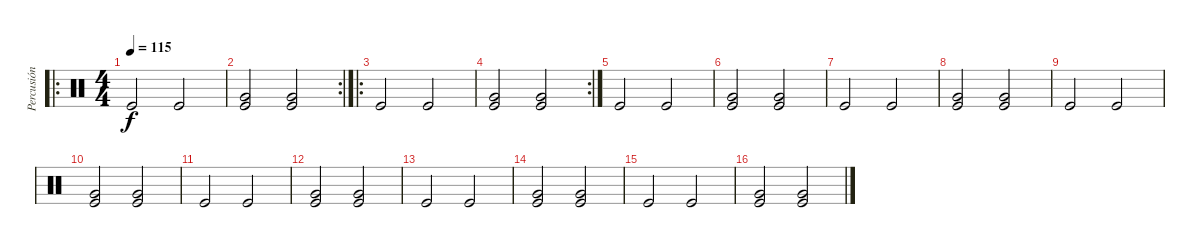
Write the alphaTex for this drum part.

\track ("Percusión" "Percusión") {instrument percussion}
\staff {score}
\articulation defaults
\ro
\ts (4 4)
\tempo 115
\clef neutral
\ks c "Kick (hit)".2{dy f} "Kick (hit)".2
|
\rc 2
("Very Low Tom (hit)" "Kick (hit)").2 ("Very Low Tom (hit)" "Kick (hit)").2 |
\ro "Kick (hit)".2 "Kick (hit)".2
|
\rc 2
("Very Low Tom (hit)" "Kick (hit)").2 ("Very Low Tom (hit)" "Kick (hit)").2 |
"Kick (hit)".2 "Kick (hit)".2 |
("Very Low Tom (hit)" "Kick (hit)").2 ("Very Low Tom (hit)" "Kick (hit)").2 |
"Kick (hit)".2 "Kick (hit)".2 |
("Very Low Tom (hit)" "Kick (hit)").2 ("Very Low Tom (hit)" "Kick (hit)").2 |
"Kick (hit)".2 "Kick (hit)".2 |
("Very Low Tom (hit)" "Kick (hit)").2 ("Very Low Tom (hit)" "Kick (hit)").2 |
"Kick (hit)".2 "Kick (hit)".2 |
("Very Low Tom (hit)" "Kick (hit)").2 ("Very Low Tom (hit)" "Kick (hit)").2 |
"Kick (hit)".2 "Kick (hit)".2 |
("Very Low Tom (hit)" "Kick (hit)").2 ("Very Low Tom (hit)" "Kick (hit)").2 |
"Kick (hit)".2 "Kick (hit)".2 |
("Very Low Tom (hit)" "Kick (hit)").2 ("Very Low Tom (hit)" "Kick (hit)").2
